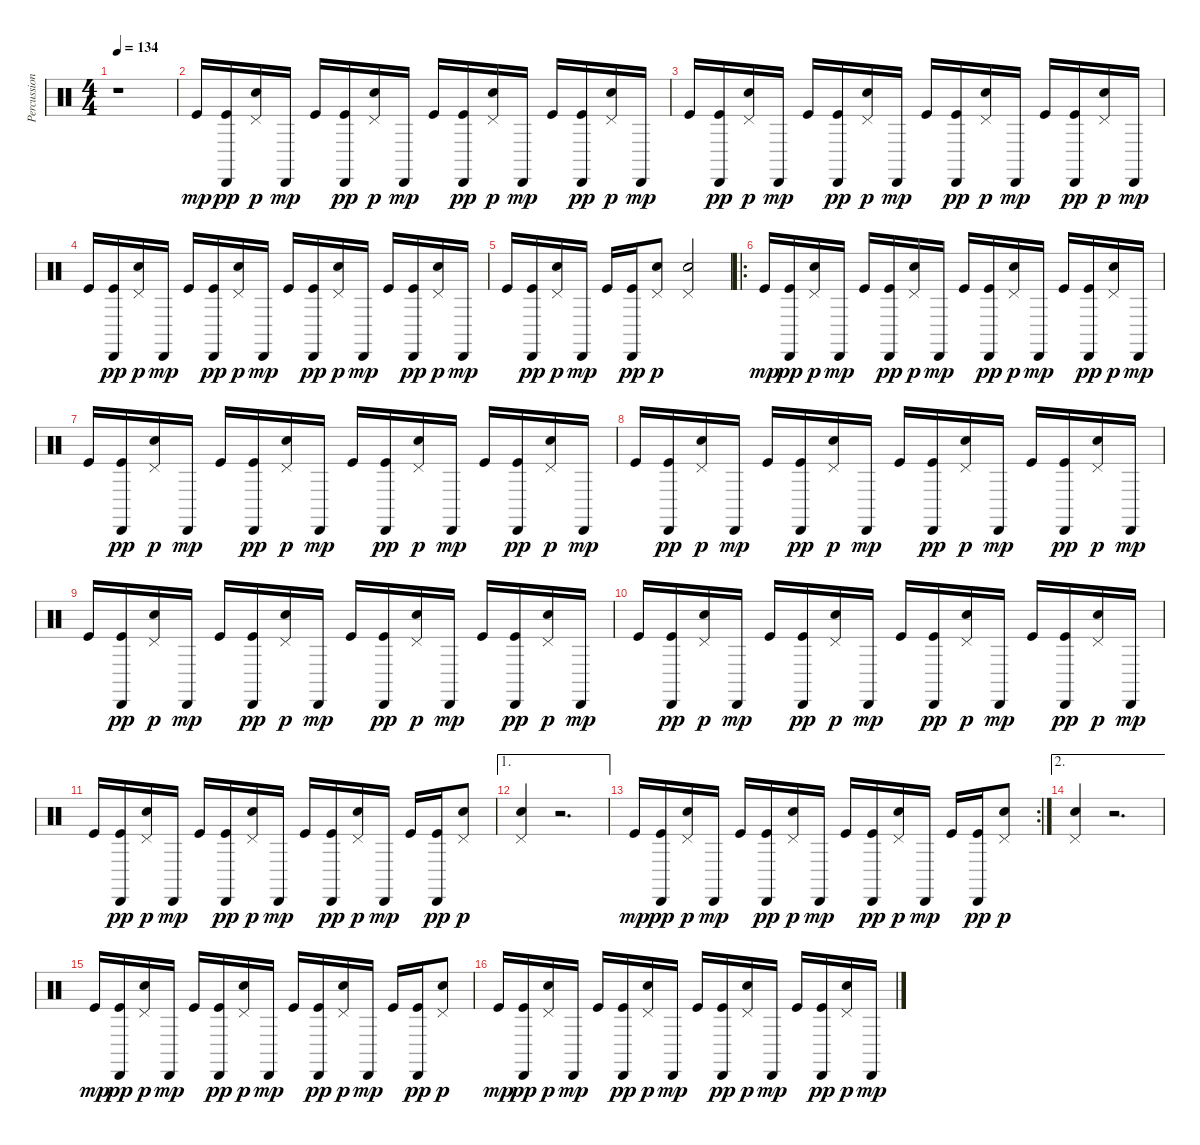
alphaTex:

\track ("Percussions" "Percussion") {instrument percussion}
\staff {score}
\articulation defaults
\ts (4 4)
\tempo 134
\clef neutral
\ks c
r.1{dy mp} |
"Kick (hit)".16 ("Cabasa (hit)" "Kick (hit)").16{dy pp} ("Electric Snare (hit)" "Pedal Hi-Hat (hit)").16{dy p} "Cabasa (hit)".16{dy mp} "Kick (hit)".16 ("Cabasa (hit)" "Kick (hit)").16{dy pp} ("Electric Snare (hit)" "Pedal Hi-Hat (hit)").16{dy p} "Cabasa (hit)".16{dy mp} "Kick (hit)".16 ("Cabasa (hit)" "Kick (hit)").16{dy pp} ("Electric Snare (hit)" "Pedal Hi-Hat (hit)").16{dy p} "Cabasa (hit)".16{dy mp} "Kick (hit)".16 ("Cabasa (hit)" "Kick (hit)").16{dy pp} ("Electric Snare (hit)" "Pedal Hi-Hat (hit)").16{dy p} "Cabasa (hit)".16{dy mp} |
"Kick (hit)".16 ("Cabasa (hit)" "Kick (hit)").16{dy pp} ("Electric Snare (hit)" "Pedal Hi-Hat (hit)").16{dy p} "Cabasa (hit)".16{dy mp} "Kick (hit)".16 ("Cabasa (hit)" "Kick (hit)").16{dy pp} ("Electric Snare (hit)" "Pedal Hi-Hat (hit)").16{dy p} "Cabasa (hit)".16{dy mp} "Kick (hit)".16 ("Cabasa (hit)" "Kick (hit)").16{dy pp} ("Electric Snare (hit)" "Pedal Hi-Hat (hit)").16{dy p} "Cabasa (hit)".16{dy mp} "Kick (hit)".16 ("Cabasa (hit)" "Kick (hit)").16{dy pp} ("Electric Snare (hit)" "Pedal Hi-Hat (hit)").16{dy p} "Cabasa (hit)".16{dy mp} |
"Kick (hit)".16 ("Cabasa (hit)" "Kick (hit)").16{dy pp} ("Electric Snare (hit)" "Pedal Hi-Hat (hit)").16{dy p} "Cabasa (hit)".16{dy mp} "Kick (hit)".16 ("Cabasa (hit)" "Kick (hit)").16{dy pp} ("Electric Snare (hit)" "Pedal Hi-Hat (hit)").16{dy p} "Cabasa (hit)".16{dy mp} "Kick (hit)".16 ("Cabasa (hit)" "Kick (hit)").16{dy pp} ("Electric Snare (hit)" "Pedal Hi-Hat (hit)").16{dy p} "Cabasa (hit)".16{dy mp} "Kick (hit)".16 ("Cabasa (hit)" "Kick (hit)").16{dy pp} ("Electric Snare (hit)" "Pedal Hi-Hat (hit)").16{dy p} "Cabasa (hit)".16{dy mp} |
"Kick (hit)".16 ("Cabasa (hit)" "Kick (hit)").16{dy pp} ("Electric Snare (hit)" "Pedal Hi-Hat (hit)").16{dy p} "Cabasa (hit)".16{dy mp} "Kick (hit)".16 ("Cabasa (hit)" "Kick (hit)").16{dy pp} ("Electric Snare (hit)" "Pedal Hi-Hat (hit)").8{dy p} ("Electric Snare (hit)" "Pedal Hi-Hat (hit)").2 |
\ro "Kick (hit)".16{dy mp}
("Cabasa (hit)" "Kick (hit)").16{dy pp} ("Electric Snare (hit)" "Pedal Hi-Hat (hit)").16{dy p} "Cabasa (hit)".16{dy mp} "Kick (hit)".16 ("Cabasa (hit)" "Kick (hit)").16{dy pp} ("Electric Snare (hit)" "Pedal Hi-Hat (hit)").16{dy p} "Cabasa (hit)".16{dy mp} "Kick (hit)".16 ("Cabasa (hit)" "Kick (hit)").16{dy pp} ("Electric Snare (hit)" "Pedal Hi-Hat (hit)").16{dy p} "Cabasa (hit)".16{dy mp} "Kick (hit)".16 ("Cabasa (hit)" "Kick (hit)").16{dy pp} ("Electric Snare (hit)" "Pedal Hi-Hat (hit)").16{dy p} "Cabasa (hit)".16{dy mp} |
"Kick (hit)".16 ("Cabasa (hit)" "Kick (hit)").16{dy pp} ("Electric Snare (hit)" "Pedal Hi-Hat (hit)").16{dy p} "Cabasa (hit)".16{dy mp} "Kick (hit)".16 ("Cabasa (hit)" "Kick (hit)").16{dy pp} ("Electric Snare (hit)" "Pedal Hi-Hat (hit)").16{dy p} "Cabasa (hit)".16{dy mp} "Kick (hit)".16 ("Cabasa (hit)" "Kick (hit)").16{dy pp} ("Electric Snare (hit)" "Pedal Hi-Hat (hit)").16{dy p} "Cabasa (hit)".16{dy mp} "Kick (hit)".16 ("Cabasa (hit)" "Kick (hit)").16{dy pp} ("Electric Snare (hit)" "Pedal Hi-Hat (hit)").16{dy p} "Cabasa (hit)".16{dy mp} |
"Kick (hit)".16 ("Cabasa (hit)" "Kick (hit)").16{dy pp} ("Electric Snare (hit)" "Pedal Hi-Hat (hit)").16{dy p} "Cabasa (hit)".16{dy mp} "Kick (hit)".16 ("Cabasa (hit)" "Kick (hit)").16{dy pp} ("Electric Snare (hit)" "Pedal Hi-Hat (hit)").16{dy p} "Cabasa (hit)".16{dy mp} "Kick (hit)".16 ("Cabasa (hit)" "Kick (hit)").16{dy pp} ("Electric Snare (hit)" "Pedal Hi-Hat (hit)").16{dy p} "Cabasa (hit)".16{dy mp} "Kick (hit)".16 ("Cabasa (hit)" "Kick (hit)").16{dy pp} ("Electric Snare (hit)" "Pedal Hi-Hat (hit)").16{dy p} "Cabasa (hit)".16{dy mp} |
"Kick (hit)".16 ("Cabasa (hit)" "Kick (hit)").16{dy pp} ("Electric Snare (hit)" "Pedal Hi-Hat (hit)").16{dy p} "Cabasa (hit)".16{dy mp} "Kick (hit)".16 ("Cabasa (hit)" "Kick (hit)").16{dy pp} ("Electric Snare (hit)" "Pedal Hi-Hat (hit)").16{dy p} "Cabasa (hit)".16{dy mp} "Kick (hit)".16 ("Cabasa (hit)" "Kick (hit)").16{dy pp} ("Electric Snare (hit)" "Pedal Hi-Hat (hit)").16{dy p} "Cabasa (hit)".16{dy mp} "Kick (hit)".16 ("Cabasa (hit)" "Kick (hit)").16{dy pp} ("Electric Snare (hit)" "Pedal Hi-Hat (hit)").16{dy p} "Cabasa (hit)".16{dy mp} |
"Kick (hit)".16 ("Cabasa (hit)" "Kick (hit)").16{dy pp} ("Electric Snare (hit)" "Pedal Hi-Hat (hit)").16{dy p} "Cabasa (hit)".16{dy mp} "Kick (hit)".16 ("Cabasa (hit)" "Kick (hit)").16{dy pp} ("Electric Snare (hit)" "Pedal Hi-Hat (hit)").16{dy p} "Cabasa (hit)".16{dy mp} "Kick (hit)".16 ("Cabasa (hit)" "Kick (hit)").16{dy pp} ("Electric Snare (hit)" "Pedal Hi-Hat (hit)").16{dy p} "Cabasa (hit)".16{dy mp} "Kick (hit)".16 ("Cabasa (hit)" "Kick (hit)").16{dy pp} ("Electric Snare (hit)" "Pedal Hi-Hat (hit)").16{dy p} "Cabasa (hit)".16{dy mp} |
"Kick (hit)".16 ("Cabasa (hit)" "Kick (hit)").16{dy pp} ("Electric Snare (hit)" "Pedal Hi-Hat (hit)").16{dy p} "Cabasa (hit)".16{dy mp} "Kick (hit)".16 ("Cabasa (hit)" "Kick (hit)").16{dy pp} ("Electric Snare (hit)" "Pedal Hi-Hat (hit)").16{dy p} "Cabasa (hit)".16{dy mp} "Kick (hit)".16 ("Cabasa (hit)" "Kick (hit)").16{dy pp} ("Electric Snare (hit)" "Pedal Hi-Hat (hit)").16{dy p} "Cabasa (hit)".16{dy mp} "Kick (hit)".16 ("Cabasa (hit)" "Kick (hit)").16{dy pp} ("Electric Snare (hit)" "Pedal Hi-Hat (hit)").8{dy p} |
\ae 1
("Electric Snare (hit)" "Pedal Hi-Hat (hit)").4 r.2{d} |
\rc 2 "Kick (hit)".16{dy mp}
("Cabasa (hit)" "Kick (hit)").16{dy pp} ("Electric Snare (hit)" "Pedal Hi-Hat (hit)").16{dy p} "Cabasa (hit)".16{dy mp} "Kick (hit)".16 ("Cabasa (hit)" "Kick (hit)").16{dy pp} ("Electric Snare (hit)" "Pedal Hi-Hat (hit)").16{dy p} "Cabasa (hit)".16{dy mp} "Kick (hit)".16 ("Cabasa (hit)" "Kick (hit)").16{dy pp} ("Electric Snare (hit)" "Pedal Hi-Hat (hit)").16{dy p} "Cabasa (hit)".16{dy mp} "Kick (hit)".16 ("Cabasa (hit)" "Kick (hit)").16{dy pp} ("Electric Snare (hit)" "Pedal Hi-Hat (hit)").8{dy p} |
\ae 2
("Electric Snare (hit)" "Pedal Hi-Hat (hit)").4 r.2{d} |
"Kick (hit)".16{dy mp} ("Cabasa (hit)" "Kick (hit)").16{dy pp} ("Electric Snare (hit)" "Pedal Hi-Hat (hit)").16{dy p} "Cabasa (hit)".16{dy mp} "Kick (hit)".16 ("Cabasa (hit)" "Kick (hit)").16{dy pp} ("Electric Snare (hit)" "Pedal Hi-Hat (hit)").16{dy p} "Cabasa (hit)".16{dy mp} "Kick (hit)".16 ("Cabasa (hit)" "Kick (hit)").16{dy pp} ("Electric Snare (hit)" "Pedal Hi-Hat (hit)").16{dy p} "Cabasa (hit)".16{dy mp} "Kick (hit)".16 ("Cabasa (hit)" "Kick (hit)").16{dy pp} ("Electric Snare (hit)" "Pedal Hi-Hat (hit)").8{dy p} |
"Kick (hit)".16{dy mp} ("Cabasa (hit)" "Kick (hit)").16{dy pp} ("Electric Snare (hit)" "Pedal Hi-Hat (hit)").16{dy p} "Cabasa (hit)".16{dy mp} "Kick (hit)".16 ("Cabasa (hit)" "Kick (hit)").16{dy pp} ("Electric Snare (hit)" "Pedal Hi-Hat (hit)").16{dy p} "Cabasa (hit)".16{dy mp} "Kick (hit)".16 ("Cabasa (hit)" "Kick (hit)").16{dy pp} ("Electric Snare (hit)" "Pedal Hi-Hat (hit)").16{dy p} "Cabasa (hit)".16{dy mp} "Kick (hit)".16 ("Cabasa (hit)" "Kick (hit)").16{dy pp} ("Electric Snare (hit)" "Pedal Hi-Hat (hit)").16{dy p} "Cabasa (hit)".16{dy mp}
